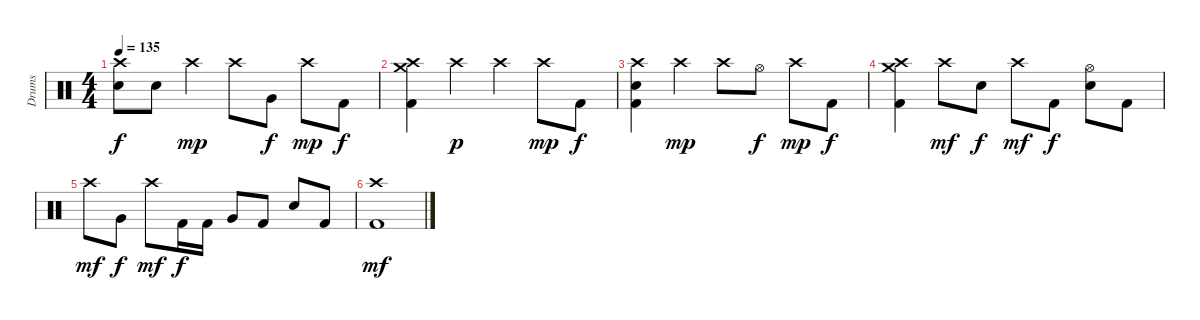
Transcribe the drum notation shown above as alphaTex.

\track ("Drums" "Drums") {instrument percussion}
\staff {score}
\articulation defaults
\ts (4 4)
\tempo 135
\clef neutral
\ks c
("Crash high (hit)" "Electric Snare (hit)").8{dy f} "Electric Snare (hit)".8 "Crash high (hit)".4{dy mp} "Crash high (hit)".8 "Very Low Tom (hit)".8{dy f} "Crash high (hit)".8{dy mp} "Kick (hit) 2".8{dy f} |
("Crash high (hit)" "Crash medium (hit)" "Kick (hit) 2").4 "Crash high (hit)".4{dy p} "Crash high (hit)".4 "Crash high (hit)".8{dy mp} "Kick (hit) 2".8{dy f} |
("Crash high (hit)" "Electric Snare (hit)" "Kick (hit) 2").4 "Crash high (hit)".4{dy mp} "Crash high (hit)".8 "Hi-Hat (open)".8{dy f} "Crash high (hit)".8{dy mp} "Kick (hit) 2".8{dy f} |
("Crash high (hit)" "Crash medium (hit)" "Kick (hit) 2").4 "Crash high (hit)".8{dy mf} "Electric Snare (hit)".8{dy f} "Crash high (hit)".8{dy mf} "Kick (hit) 2".8{dy f} ("Hi-Hat (open)" "Electric Snare (hit)").8 "Kick (hit) 2".8 |
"Crash high (hit)".8{dy mf} "Very Low Tom (hit)".8{dy f} "Crash high (hit)".8{dy mf} "Kick (hit) 2".16{dy f} "Kick (hit) 2".16 "Very Low Tom (hit)".8 "Kick (hit) 2".8 "Electric Snare (hit)".8 "Kick (hit) 2".8 |
("Crash high (hit)" "Kick (hit) 2").1{dy mf}
